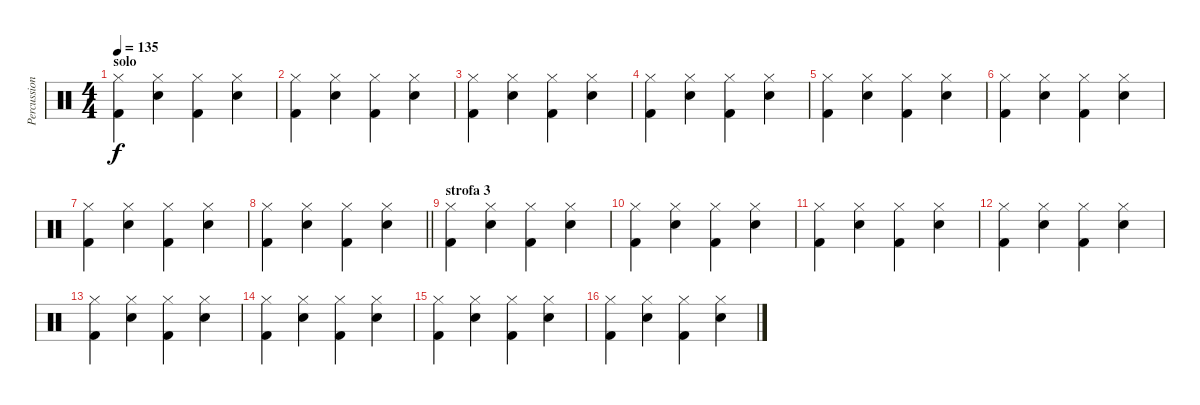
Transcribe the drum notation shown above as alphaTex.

\track ("Percussion" "Percussion") {instrument percussion}
\staff {score}
\articulation defaults
\ts (4 4)
\section ("" "solo")
\tempo 135
\clef neutral
\ks c
("Hi-Hat (closed)" "Kick (hit) 2").4{dy f} ("Hi-Hat (closed)" "Electric Snare (hit)").4 ("Hi-Hat (closed)" "Kick (hit) 2").4 ("Hi-Hat (closed)" "Electric Snare (hit)").4 |
("Hi-Hat (closed)" "Kick (hit) 2").4 ("Hi-Hat (closed)" "Electric Snare (hit)").4 ("Hi-Hat (closed)" "Kick (hit) 2").4 ("Hi-Hat (closed)" "Electric Snare (hit)").4 |
("Hi-Hat (closed)" "Kick (hit) 2").4 ("Hi-Hat (closed)" "Electric Snare (hit)").4 ("Hi-Hat (closed)" "Kick (hit) 2").4 ("Hi-Hat (closed)" "Electric Snare (hit)").4 |
("Hi-Hat (closed)" "Kick (hit) 2").4 ("Hi-Hat (closed)" "Electric Snare (hit)").4 ("Hi-Hat (closed)" "Kick (hit) 2").4 ("Hi-Hat (closed)" "Electric Snare (hit)").4 |
("Hi-Hat (closed)" "Kick (hit) 2").4 ("Hi-Hat (closed)" "Electric Snare (hit)").4 ("Hi-Hat (closed)" "Kick (hit) 2").4 ("Hi-Hat (closed)" "Electric Snare (hit)").4 |
("Hi-Hat (closed)" "Kick (hit) 2").4 ("Hi-Hat (closed)" "Electric Snare (hit)").4 ("Hi-Hat (closed)" "Kick (hit) 2").4 ("Hi-Hat (closed)" "Electric Snare (hit)").4 |
("Hi-Hat (closed)" "Kick (hit) 2").4 ("Hi-Hat (closed)" "Electric Snare (hit)").4 ("Hi-Hat (closed)" "Kick (hit) 2").4 ("Hi-Hat (closed)" "Electric Snare (hit)").4 |
\barLineRight lightlight
("Hi-Hat (closed)" "Kick (hit) 2").4 ("Hi-Hat (closed)" "Electric Snare (hit)").4 ("Hi-Hat (closed)" "Kick (hit) 2").4 ("Hi-Hat (closed)" "Electric Snare (hit)").4 |
\section ("" "strofa 3")
("Hi-Hat (closed)" "Kick (hit) 2").4 ("Hi-Hat (closed)" "Electric Snare (hit)").4 ("Hi-Hat (closed)" "Kick (hit) 2").4 ("Hi-Hat (closed)" "Electric Snare (hit)").4 |
("Hi-Hat (closed)" "Kick (hit) 2").4 ("Hi-Hat (closed)" "Electric Snare (hit)").4 ("Hi-Hat (closed)" "Kick (hit) 2").4 ("Hi-Hat (closed)" "Electric Snare (hit)").4 |
("Hi-Hat (closed)" "Kick (hit) 2").4 ("Hi-Hat (closed)" "Electric Snare (hit)").4 ("Hi-Hat (closed)" "Kick (hit) 2").4 ("Hi-Hat (closed)" "Electric Snare (hit)").4 |
("Hi-Hat (closed)" "Kick (hit) 2").4 ("Hi-Hat (closed)" "Electric Snare (hit)").4 ("Hi-Hat (closed)" "Kick (hit) 2").4 ("Hi-Hat (closed)" "Electric Snare (hit)").4 |
("Hi-Hat (closed)" "Kick (hit) 2").4 ("Hi-Hat (closed)" "Electric Snare (hit)").4 ("Hi-Hat (closed)" "Kick (hit) 2").4 ("Hi-Hat (closed)" "Electric Snare (hit)").4 |
("Hi-Hat (closed)" "Kick (hit) 2").4 ("Hi-Hat (closed)" "Electric Snare (hit)").4 ("Hi-Hat (closed)" "Kick (hit) 2").4 ("Hi-Hat (closed)" "Electric Snare (hit)").4 |
("Hi-Hat (closed)" "Kick (hit) 2").4 ("Hi-Hat (closed)" "Electric Snare (hit)").4 ("Hi-Hat (closed)" "Kick (hit) 2").4 ("Hi-Hat (closed)" "Electric Snare (hit)").4 |
("Hi-Hat (closed)" "Kick (hit) 2").4 ("Hi-Hat (closed)" "Electric Snare (hit)").4 ("Hi-Hat (closed)" "Kick (hit) 2").4 ("Hi-Hat (closed)" "Electric Snare (hit)").4
